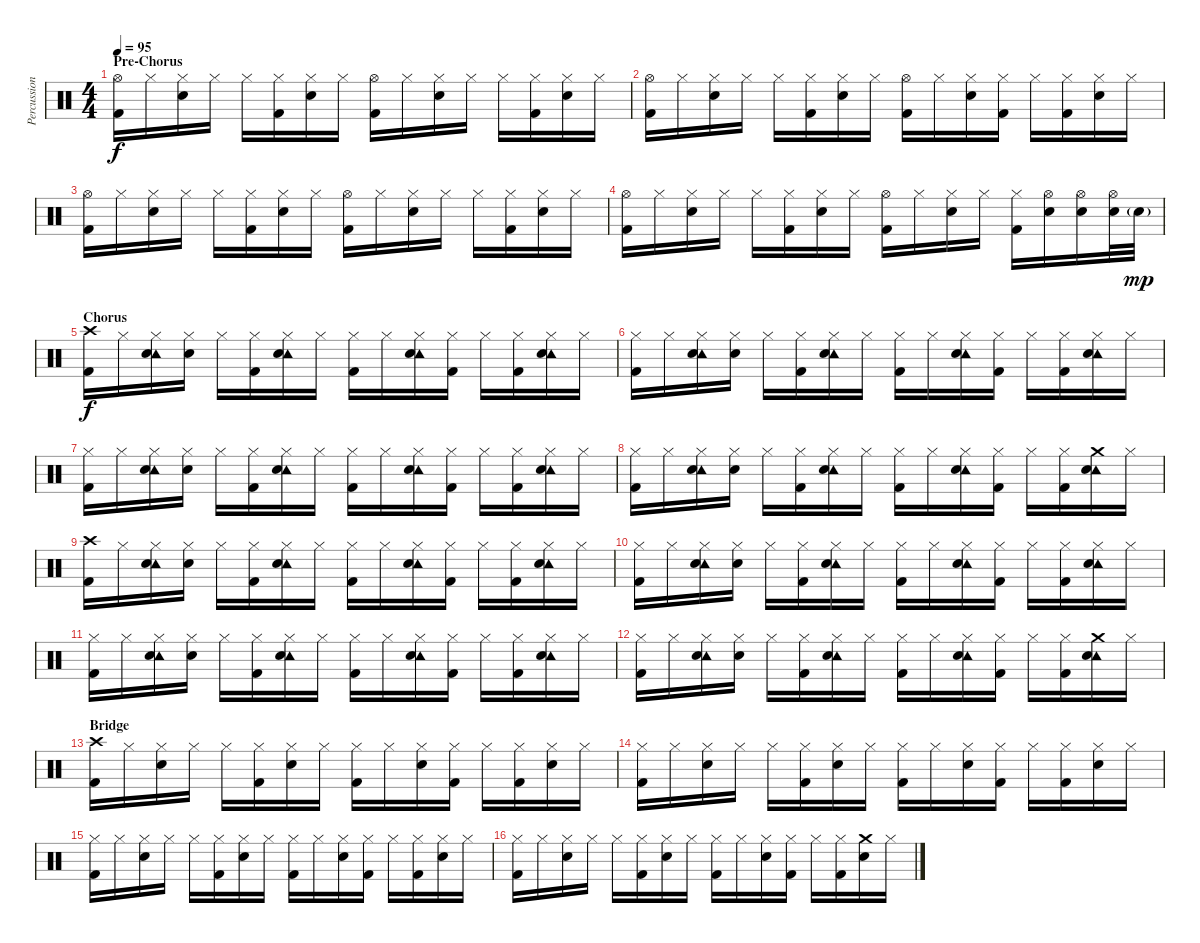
\track ("Percussion" "Percussion") {instrument percussion}
\staff {score}
\articulation defaults
\ts (4 4)
\section ("" "Pre-Chorus")
\tempo 95
\clef neutral
\ks c
("Hi-Hat (open)" "Kick (hit) 2").16{dy f} "Hi-Hat (closed)".16 ("Hi-Hat (closed)" "Electric Snare (hit)").16 "Hi-Hat (closed)".16 "Hi-Hat (closed)".16 ("Hi-Hat (closed)" "Kick (hit) 2").16 ("Hi-Hat (closed)" "Electric Snare (hit)").16 "Hi-Hat (closed)".16 ("Hi-Hat (open)" "Kick (hit) 2").16 "Hi-Hat (closed)".16 ("Hi-Hat (closed)" "Electric Snare (hit)").16 "Hi-Hat (closed)".16 "Hi-Hat (closed)".16 ("Hi-Hat (closed)" "Kick (hit) 2").16 ("Hi-Hat (closed)" "Electric Snare (hit)").16 "Hi-Hat (closed)".16 |
("Hi-Hat (open)" "Kick (hit) 2").16 "Hi-Hat (closed)".16 ("Hi-Hat (closed)" "Electric Snare (hit)").16 "Hi-Hat (closed)".16 "Hi-Hat (closed)".16 ("Hi-Hat (closed)" "Kick (hit) 2").16 ("Hi-Hat (closed)" "Electric Snare (hit)").16 "Hi-Hat (closed)".16 ("Hi-Hat (open)" "Kick (hit) 2").16 "Hi-Hat (closed)".16 ("Hi-Hat (closed)" "Electric Snare (hit)").16 ("Hi-Hat (closed)" "Kick (hit) 2").16 "Hi-Hat (closed)".16 ("Hi-Hat (closed)" "Kick (hit) 2").16 ("Hi-Hat (closed)" "Electric Snare (hit)").16 "Hi-Hat (closed)".16 |
("Hi-Hat (open)" "Kick (hit) 2").16 "Hi-Hat (closed)".16 ("Hi-Hat (closed)" "Electric Snare (hit)").16 "Hi-Hat (closed)".16 "Hi-Hat (closed)".16 ("Hi-Hat (closed)" "Kick (hit) 2").16 ("Hi-Hat (closed)" "Electric Snare (hit)").16 "Hi-Hat (closed)".16 ("Hi-Hat (open)" "Kick (hit) 2").16 "Hi-Hat (closed)".16 ("Hi-Hat (closed)" "Electric Snare (hit)").16 "Hi-Hat (closed)".16 "Hi-Hat (closed)".16 ("Hi-Hat (closed)" "Kick (hit) 2").16 ("Hi-Hat (closed)" "Electric Snare (hit)").16 "Hi-Hat (closed)".16 |
("Hi-Hat (open)" "Kick (hit) 2").16 "Hi-Hat (closed)".16 ("Hi-Hat (closed)" "Electric Snare (hit)").16 "Hi-Hat (closed)".16 "Hi-Hat (closed)".16 ("Hi-Hat (closed)" "Kick (hit) 2").16 ("Hi-Hat (closed)" "Electric Snare (hit)").16 "Hi-Hat (closed)".16 ("Hi-Hat (open)" "Kick (hit) 2").16 "Hi-Hat (closed)".16 ("Hi-Hat (closed)" "Electric Snare (hit)").16 "Hi-Hat (closed)".16 ("Hi-Hat (closed)" "Kick (hit) 2").16 ("Hi-Hat (open)" "Electric Snare (hit)").16 ("Hi-Hat (open)" "Electric Snare (hit)").16 ("Hi-Hat (open)" "Electric Snare (hit)").32 "Electric Snare (hit)"{g}.32{dy mp} |
\section ("" "Chorus")
("Crash high (hit)" "Kick (hit) 2").16{dy f} "Hi-Hat (closed)".16 ("Tambourine (hit)" "Hi-Hat (closed)" "Electric Snare (hit)").16 ("Hi-Hat (closed)" "Electric Snare (hit)").16 "Hi-Hat (closed)".16 ("Hi-Hat (closed)" "Kick (hit) 2").16 ("Tambourine (hit)" "Hi-Hat (closed)" "Electric Snare (hit)").16 "Hi-Hat (closed)".16 ("Hi-Hat (closed)" "Kick (hit) 2").16 "Hi-Hat (closed)".16 ("Tambourine (hit)" "Hi-Hat (closed)" "Electric Snare (hit)").16 ("Hi-Hat (closed)" "Kick (hit) 2").16 "Hi-Hat (closed)".16 ("Hi-Hat (closed)" "Kick (hit) 2").16 ("Tambourine (hit)" "Hi-Hat (closed)" "Electric Snare (hit)").16 "Hi-Hat (closed)".16 |
("Hi-Hat (closed)" "Kick (hit) 2").16 "Hi-Hat (closed)".16 ("Tambourine (hit)" "Hi-Hat (closed)" "Electric Snare (hit)").16 ("Hi-Hat (closed)" "Electric Snare (hit)").16 "Hi-Hat (closed)".16 ("Hi-Hat (closed)" "Kick (hit) 2").16 ("Tambourine (hit)" "Hi-Hat (closed)" "Electric Snare (hit)").16 "Hi-Hat (closed)".16 ("Hi-Hat (closed)" "Kick (hit) 2").16 "Hi-Hat (closed)".16 ("Tambourine (hit)" "Hi-Hat (closed)" "Electric Snare (hit)").16 ("Hi-Hat (closed)" "Kick (hit) 2").16 "Hi-Hat (closed)".16 ("Hi-Hat (closed)" "Kick (hit) 2").16 ("Tambourine (hit)" "Hi-Hat (closed)" "Electric Snare (hit)").16 "Hi-Hat (closed)".16 |
("Hi-Hat (closed)" "Kick (hit) 2").16 "Hi-Hat (closed)".16 ("Tambourine (hit)" "Hi-Hat (closed)" "Electric Snare (hit)").16 ("Hi-Hat (closed)" "Electric Snare (hit)").16 "Hi-Hat (closed)".16 ("Hi-Hat (closed)" "Kick (hit) 2").16 ("Tambourine (hit)" "Hi-Hat (closed)" "Electric Snare (hit)").16 "Hi-Hat (closed)".16 ("Hi-Hat (closed)" "Kick (hit) 2").16 "Hi-Hat (closed)".16 ("Tambourine (hit)" "Hi-Hat (closed)" "Electric Snare (hit)").16 ("Hi-Hat (closed)" "Kick (hit) 2").16 "Hi-Hat (closed)".16 ("Hi-Hat (closed)" "Kick (hit) 2").16 ("Tambourine (hit)" "Hi-Hat (closed)" "Electric Snare (hit)").16 "Hi-Hat (closed)".16 |
("Hi-Hat (closed)" "Kick (hit) 2").16 "Hi-Hat (closed)".16 ("Tambourine (hit)" "Hi-Hat (closed)" "Electric Snare (hit)").16 ("Hi-Hat (closed)" "Electric Snare (hit)").16 "Hi-Hat (closed)".16 ("Hi-Hat (closed)" "Kick (hit) 2").16 ("Tambourine (hit)" "Hi-Hat (closed)" "Electric Snare (hit)").16 "Hi-Hat (closed)".16 ("Hi-Hat (closed)" "Kick (hit) 2").16 "Hi-Hat (closed)".16 ("Tambourine (hit)" "Hi-Hat (closed)" "Electric Snare (hit)").16 ("Hi-Hat (closed)" "Kick (hit) 2").16 "Hi-Hat (closed)".16 ("Hi-Hat (closed)" "Kick (hit) 2").16 ("Tambourine (hit)" "Crash medium (hit)" "Electric Snare (hit)").16 "Hi-Hat (closed)".16 |
("Crash high (hit)" "Kick (hit) 2").16 "Hi-Hat (closed)".16 ("Tambourine (hit)" "Hi-Hat (closed)" "Electric Snare (hit)").16 ("Hi-Hat (closed)" "Electric Snare (hit)").16 "Hi-Hat (closed)".16 ("Hi-Hat (closed)" "Kick (hit) 2").16 ("Tambourine (hit)" "Hi-Hat (closed)" "Electric Snare (hit)").16 "Hi-Hat (closed)".16 ("Hi-Hat (closed)" "Kick (hit) 2").16 "Hi-Hat (closed)".16 ("Tambourine (hit)" "Hi-Hat (closed)" "Electric Snare (hit)").16 ("Hi-Hat (closed)" "Kick (hit) 2").16 "Hi-Hat (closed)".16 ("Hi-Hat (closed)" "Kick (hit) 2").16 ("Tambourine (hit)" "Hi-Hat (closed)" "Electric Snare (hit)").16 "Hi-Hat (closed)".16 |
("Hi-Hat (closed)" "Kick (hit) 2").16 "Hi-Hat (closed)".16 ("Tambourine (hit)" "Hi-Hat (closed)" "Electric Snare (hit)").16 ("Hi-Hat (closed)" "Electric Snare (hit)").16 "Hi-Hat (closed)".16 ("Hi-Hat (closed)" "Kick (hit) 2").16 ("Tambourine (hit)" "Hi-Hat (closed)" "Electric Snare (hit)").16 "Hi-Hat (closed)".16 ("Hi-Hat (closed)" "Kick (hit) 2").16 "Hi-Hat (closed)".16 ("Tambourine (hit)" "Hi-Hat (closed)" "Electric Snare (hit)").16 ("Hi-Hat (closed)" "Kick (hit) 2").16 "Hi-Hat (closed)".16 ("Hi-Hat (closed)" "Kick (hit) 2").16 ("Tambourine (hit)" "Hi-Hat (closed)" "Electric Snare (hit)").16 "Hi-Hat (closed)".16 |
("Hi-Hat (closed)" "Kick (hit) 2").16 "Hi-Hat (closed)".16 ("Tambourine (hit)" "Hi-Hat (closed)" "Electric Snare (hit)").16 ("Hi-Hat (closed)" "Electric Snare (hit)").16 "Hi-Hat (closed)".16 ("Hi-Hat (closed)" "Kick (hit) 2").16 ("Tambourine (hit)" "Hi-Hat (closed)" "Electric Snare (hit)").16 "Hi-Hat (closed)".16 ("Hi-Hat (closed)" "Kick (hit) 2").16 "Hi-Hat (closed)".16 ("Tambourine (hit)" "Hi-Hat (closed)" "Electric Snare (hit)").16 ("Hi-Hat (closed)" "Kick (hit) 2").16 "Hi-Hat (closed)".16 ("Hi-Hat (closed)" "Kick (hit) 2").16 ("Tambourine (hit)" "Hi-Hat (closed)" "Electric Snare (hit)").16 "Hi-Hat (closed)".16 |
("Hi-Hat (closed)" "Kick (hit) 2").16 "Hi-Hat (closed)".16 ("Tambourine (hit)" "Hi-Hat (closed)" "Electric Snare (hit)").16 ("Hi-Hat (closed)" "Electric Snare (hit)").16 "Hi-Hat (closed)".16 ("Hi-Hat (closed)" "Kick (hit) 2").16 ("Tambourine (hit)" "Hi-Hat (closed)" "Electric Snare (hit)").16 "Hi-Hat (closed)".16 ("Hi-Hat (closed)" "Kick (hit) 2").16 "Hi-Hat (closed)".16 ("Tambourine (hit)" "Hi-Hat (closed)" "Electric Snare (hit)").16 ("Hi-Hat (closed)" "Kick (hit) 2").16 "Hi-Hat (closed)".16 ("Hi-Hat (closed)" "Kick (hit) 2").16 ("Tambourine (hit)" "Crash medium (hit)" "Electric Snare (hit)").16 "Hi-Hat (closed)".16 |
\section ("" "Bridge")
("Crash high (hit)" "Kick (hit) 2").16 "Hi-Hat (closed)".16 ("Hi-Hat (closed)" "Electric Snare (hit)").16 "Hi-Hat (closed)".16 "Hi-Hat (closed)".16 ("Hi-Hat (closed)" "Kick (hit) 2").16 ("Hi-Hat (closed)" "Electric Snare (hit)").16 "Hi-Hat (closed)".16 ("Hi-Hat (closed)" "Kick (hit) 2").16 "Hi-Hat (closed)".16 ("Hi-Hat (closed)" "Electric Snare (hit)").16 ("Hi-Hat (closed)" "Kick (hit) 2").16 "Hi-Hat (closed)".16 ("Hi-Hat (closed)" "Kick (hit) 2").16 ("Hi-Hat (closed)" "Electric Snare (hit)").16 "Hi-Hat (closed)".16 |
("Hi-Hat (closed)" "Kick (hit) 2").16 "Hi-Hat (closed)".16 ("Hi-Hat (closed)" "Electric Snare (hit)").16 "Hi-Hat (closed)".16 "Hi-Hat (closed)".16 ("Hi-Hat (closed)" "Kick (hit) 2").16 ("Hi-Hat (closed)" "Electric Snare (hit)").16 "Hi-Hat (closed)".16 ("Hi-Hat (closed)" "Kick (hit) 2").16 "Hi-Hat (closed)".16 ("Hi-Hat (closed)" "Electric Snare (hit)").16 ("Hi-Hat (closed)" "Kick (hit) 2").16 "Hi-Hat (closed)".16 ("Hi-Hat (closed)" "Kick (hit) 2").16 ("Hi-Hat (closed)" "Electric Snare (hit)").16 "Hi-Hat (closed)".16 |
("Hi-Hat (closed)" "Kick (hit) 2").16 "Hi-Hat (closed)".16 ("Hi-Hat (closed)" "Electric Snare (hit)").16 "Hi-Hat (closed)".16 "Hi-Hat (closed)".16 ("Hi-Hat (closed)" "Kick (hit) 2").16 ("Hi-Hat (closed)" "Electric Snare (hit)").16 "Hi-Hat (closed)".16 ("Hi-Hat (closed)" "Kick (hit) 2").16 "Hi-Hat (closed)".16 ("Hi-Hat (closed)" "Electric Snare (hit)").16 ("Hi-Hat (closed)" "Kick (hit) 2").16 "Hi-Hat (closed)".16 ("Hi-Hat (closed)" "Kick (hit) 2").16 ("Hi-Hat (closed)" "Electric Snare (hit)").16 "Hi-Hat (closed)".16 |
("Hi-Hat (closed)" "Kick (hit) 2").16 "Hi-Hat (closed)".16 ("Hi-Hat (closed)" "Electric Snare (hit)").16 "Hi-Hat (closed)".16 "Hi-Hat (closed)".16 ("Hi-Hat (closed)" "Kick (hit) 2").16 ("Hi-Hat (closed)" "Electric Snare (hit)").16 "Hi-Hat (closed)".16 ("Hi-Hat (closed)" "Kick (hit) 2").16 "Hi-Hat (closed)".16 ("Hi-Hat (closed)" "Electric Snare (hit)").16 ("Hi-Hat (closed)" "Kick (hit) 2").16 "Hi-Hat (closed)".16 ("Hi-Hat (closed)" "Kick (hit) 2").16 ("Crash medium (hit)" "Electric Snare (hit)").16 "Hi-Hat (closed)".16
